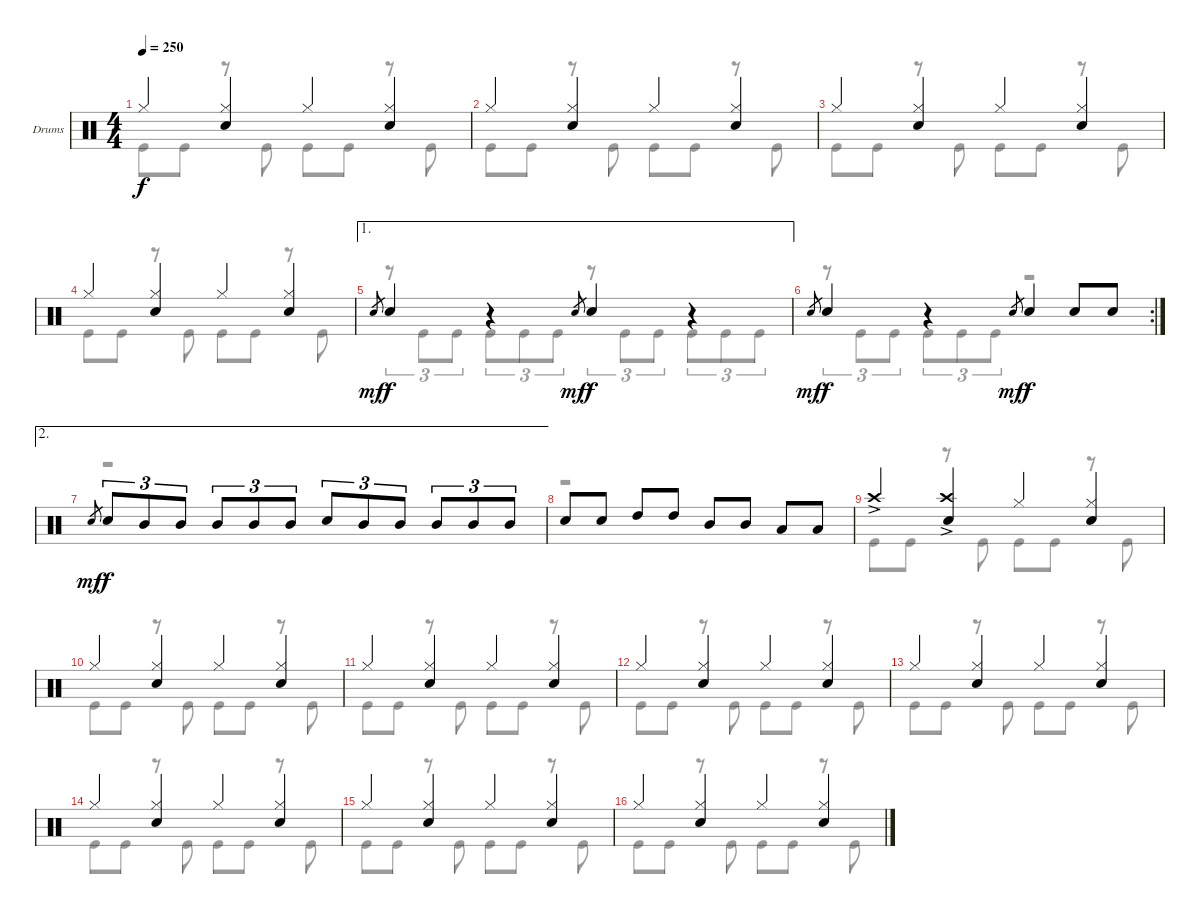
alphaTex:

\bracketExtendMode groupsimilarinstruments
\firstSystemTrackNameOrientation horizontal
\otherSystemsTrackNameOrientation horizontal
\track ("Drumkit" "Drums") {instrument percussion}
\staff {score}
\articulation defaults
\voice
\ts (4 4)
\tempo 250
\clef neutral
\ks c "Hi-Hat (closed)".4{dy f}
("Hi-Hat (closed)" "Snare (hit) 2").4 "Hi-Hat (closed)".4 ("Hi-Hat (closed)" "Snare (hit) 2").4 |
"Hi-Hat (closed)".4 ("Hi-Hat (closed)" "Snare (hit) 2").4 "Hi-Hat (closed)".4 ("Hi-Hat (closed)" "Snare (hit) 2").4 |
"Hi-Hat (closed)".4 ("Hi-Hat (closed)" "Snare (hit) 2").4 "Hi-Hat (closed)".4 ("Hi-Hat (closed)" "Snare (hit) 2").4 |
"Hi-Hat (closed)".4 ("Hi-Hat (closed)" "Snare (hit) 2").4 "Hi-Hat (closed)".4 ("Hi-Hat (closed)" "Snare (hit) 2").4 |
\ae 1 "Snare (hit) 2".8{gr dy mf} "Snare (hit) 2".4{dy f}
r.4 "Snare (hit) 2".8{gr dy mf} "Snare (hit) 2".4{dy f} r.4 |
\rc 2 "Snare (hit) 2".8{gr dy mf} "Snare (hit) 2".4{dy f}
r.4 "Snare (hit) 2".8{gr dy mf} "Snare (hit) 2".4{dy f} "Snare (hit) 2".8 "Snare (hit) 2".8 |
\ae 2 "Snare (hit) 2".8{gr dy mf} "Snare (hit) 2".8{tu (3 2) dy f} "Mid Tom (hit)".8{tu (3 2)} "Mid Tom (hit)".8{tu (3 2)} "Mid Tom (hit)".8{tu (3 2)} "Mid Tom (hit)".8{tu (3 2)} "Mid Tom (hit)".8{tu (3 2)} "Snare (hit) 2".8{tu (3 2)} "Mid Tom (hit)".8{tu (3 2)} "Mid Tom (hit)".8{tu (3 2)} "Mid Tom (hit)".8{tu (3 2)} "Mid Tom (hit)".8{tu (3 2)} "Mid Tom (hit)".8{tu (3 2)}
|
"Snare (hit) 2".8 "Snare (hit) 2".8 "High Tom (hit)".8 "High Tom (hit)".8 "Mid Tom (hit)".8 "Mid Tom (hit)".8 "Low Tom (hit)".8 "Low Tom (hit)".8 |
"Crash high (hit)"{ac}.4 ("Crash high (hit)"{ac} "Snare (hit) 2").4 "Hi-Hat (closed)".4 ("Hi-Hat (closed)" "Snare (hit) 2").4 |
"Hi-Hat (closed)".4 ("Hi-Hat (closed)" "Snare (hit) 2").4 "Hi-Hat (closed)".4 ("Hi-Hat (closed)" "Snare (hit) 2").4 |
"Hi-Hat (closed)".4 ("Hi-Hat (closed)" "Snare (hit) 2").4 "Hi-Hat (closed)".4 ("Hi-Hat (closed)" "Snare (hit) 2").4 |
"Hi-Hat (closed)".4 ("Hi-Hat (closed)" "Snare (hit) 2").4 "Hi-Hat (closed)".4 ("Hi-Hat (closed)" "Snare (hit) 2").4 |
"Hi-Hat (closed)".4 ("Hi-Hat (closed)" "Snare (hit) 2").4 "Hi-Hat (closed)".4 ("Hi-Hat (closed)" "Snare (hit) 2").4 |
"Hi-Hat (closed)".4 ("Hi-Hat (closed)" "Snare (hit) 2").4 "Hi-Hat (closed)".4 ("Hi-Hat (closed)" "Snare (hit) 2").4 |
"Hi-Hat (closed)".4 ("Hi-Hat (closed)" "Snare (hit) 2").4 "Hi-Hat (closed)".4 ("Hi-Hat (closed)" "Snare (hit) 2").4 |
"Hi-Hat (closed)".4 ("Hi-Hat (closed)" "Snare (hit) 2").4 "Hi-Hat (closed)".4 ("Hi-Hat (closed)" "Snare (hit) 2").4
\voice
\clef neutral
\ottava regular
\simile none
\ks c "Kick (hit)".8{dy f} "Kick (hit)".8
r.8 "Kick (hit)".8 "Kick (hit)".8 "Kick (hit)".8 r.8 "Kick (hit)".8 |
"Kick (hit)".8 "Kick (hit)".8 r.8 "Kick (hit)".8 "Kick (hit)".8 "Kick (hit)".8 r.8 "Kick (hit)".8 |
"Kick (hit)".8 "Kick (hit)".8 r.8 "Kick (hit)".8 "Kick (hit)".8 "Kick (hit)".8 r.8 "Kick (hit)".8 |
"Kick (hit)".8 "Kick (hit)".8 r.8 "Kick (hit)".8 "Kick (hit)".8 "Kick (hit)".8 r.8 "Kick (hit)".8 |
r.8{tu (3 2)} "Kick (hit)".8{tu (3 2)} "Kick (hit)".8{tu (3 2)} "Kick (hit)".8{tu (3 2)} "Kick (hit)".8{tu (3 2)} "Kick (hit)".8{tu (3 2)} r.8{tu (3 2)} "Kick (hit)".8{tu (3 2)} "Kick (hit)".8{tu (3 2)} "Kick (hit)".8{tu (3 2)} "Kick (hit)".8{tu (3 2)} "Kick (hit)".8{tu (3 2)} |
r.8{tu (3 2)} "Kick (hit)".8{tu (3 2)} "Kick (hit)".8{tu (3 2)} "Kick (hit)".8{tu (3 2)} "Kick (hit)".8{tu (3 2)} "Kick (hit)".8{tu (3 2)} r.2 |
r.1 |
r.1 |
"Kick (hit)".8 "Kick (hit)".8 r.8 "Kick (hit)".8 "Kick (hit)".8 "Kick (hit)".8 r.8 "Kick (hit)".8 |
"Kick (hit)".8 "Kick (hit)".8 r.8 "Kick (hit)".8 "Kick (hit)".8 "Kick (hit)".8 r.8 "Kick (hit)".8 |
"Kick (hit)".8 "Kick (hit)".8 r.8 "Kick (hit)".8 "Kick (hit)".8 "Kick (hit)".8 r.8 "Kick (hit)".8 |
"Kick (hit)".8 "Kick (hit)".8 r.8 "Kick (hit)".8 "Kick (hit)".8 "Kick (hit)".8 r.8 "Kick (hit)".8 |
"Kick (hit)".8 "Kick (hit)".8 r.8 "Kick (hit)".8 "Kick (hit)".8 "Kick (hit)".8 r.8 "Kick (hit)".8 |
"Kick (hit)".8 "Kick (hit)".8 r.8 "Kick (hit)".8 "Kick (hit)".8 "Kick (hit)".8 r.8 "Kick (hit)".8 |
"Kick (hit)".8 "Kick (hit)".8 r.8 "Kick (hit)".8 "Kick (hit)".8 "Kick (hit)".8 r.8 "Kick (hit)".8 |
"Kick (hit)".8 "Kick (hit)".8 r.8 "Kick (hit)".8 "Kick (hit)".8 "Kick (hit)".8 r.8 "Kick (hit)".8
